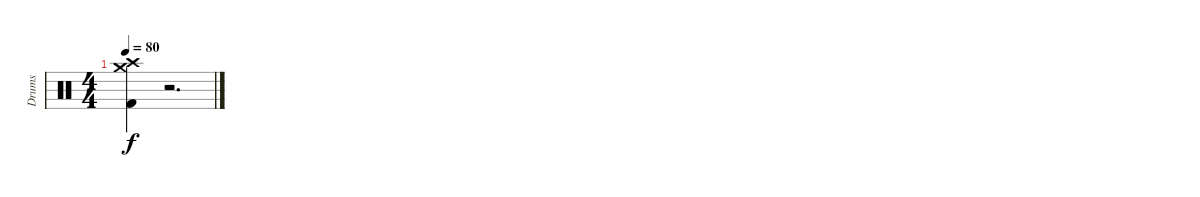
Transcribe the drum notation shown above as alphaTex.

\track ("Drums" "Drums") {instrument percussion}
\staff {score}
\articulation defaults
\ts (4 4)
\tempo 80
\clef neutral
\ks c
("Crash high (hit)" "Crash medium (hit)" "Kick (hit) 2").4{dy f} r.2{d}
